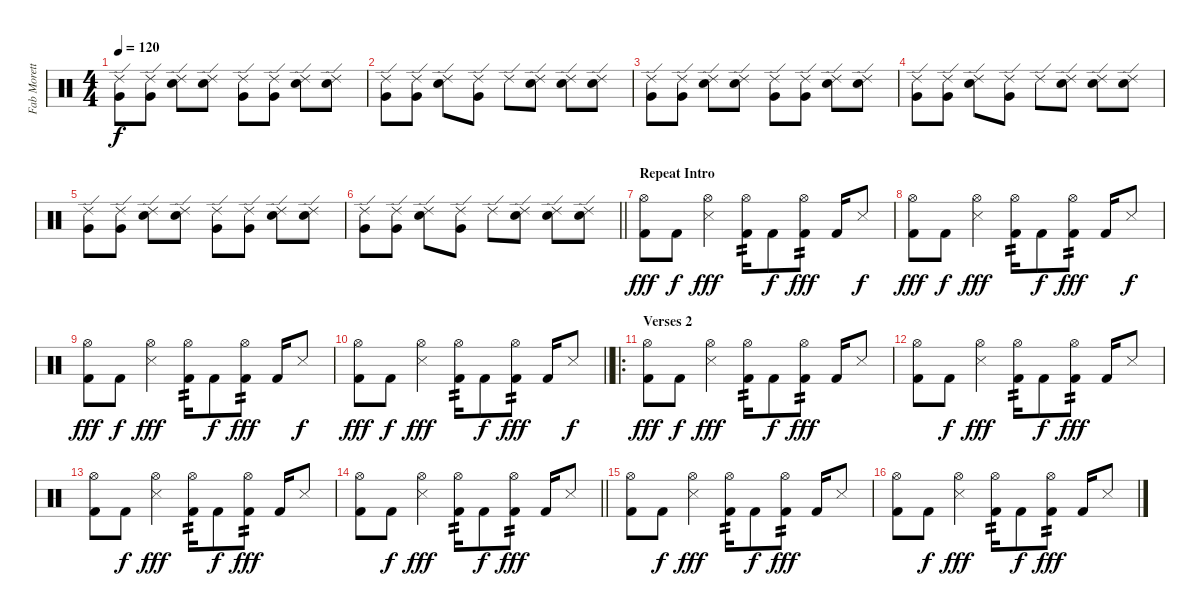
\track ("Fab Moretti - Drums" "Fab Morett") {instrument percussion}
\staff {score}
\articulation defaults
\ts (4 4)
\tempo 120
\clef neutral
\ks c
("Ride (edge) 2" "Very Low Tom (hit)").8{dy f} ("Ride (edge) 2" "Very Low Tom (hit)").8 ("Ride (edge) 2" "Electric Snare (hit)").8 ("Ride (edge) 2" "Electric Snare (hit)").8 ("Ride (edge) 2" "Very Low Tom (hit)").8 ("Ride (edge) 2" "Very Low Tom (hit)").8 ("Ride (edge) 2" "Electric Snare (hit)").8 ("Ride (edge) 2" "Electric Snare (hit)").8 |
("Ride (edge) 2" "Very Low Tom (hit)").8 ("Ride (edge) 2" "Very Low Tom (hit)").8 ("Ride (edge) 2" "Electric Snare (hit)").8 ("Ride (edge) 2" "Very Low Tom (hit)").8 "Ride (edge) 2".8 ("Ride (edge) 2" "Electric Snare (hit)").8 ("Ride (edge) 2" "Electric Snare (hit)").8 ("Ride (edge) 2" "Electric Snare (hit)").8 |
("Ride (edge) 2" "Very Low Tom (hit)").8 ("Ride (edge) 2" "Very Low Tom (hit)").8 ("Ride (edge) 2" "Electric Snare (hit)").8 ("Ride (edge) 2" "Electric Snare (hit)").8 ("Ride (edge) 2" "Very Low Tom (hit)").8 ("Ride (edge) 2" "Very Low Tom (hit)").8 ("Ride (edge) 2" "Electric Snare (hit)").8 ("Ride (edge) 2" "Electric Snare (hit)").8 |
("Ride (edge) 2" "Very Low Tom (hit)").8 ("Ride (edge) 2" "Very Low Tom (hit)").8 ("Ride (edge) 2" "Electric Snare (hit)").8 ("Ride (edge) 2" "Very Low Tom (hit)").8 "Ride (edge) 2".8 ("Ride (edge) 2" "Electric Snare (hit)").8 ("Ride (edge) 2" "Electric Snare (hit)").8 ("Ride (edge) 2" "Electric Snare (hit)").8 |
("Ride (edge) 2" "Very Low Tom (hit)").8 ("Ride (edge) 2" "Very Low Tom (hit)").8 ("Ride (edge) 2" "Electric Snare (hit)").8 ("Ride (edge) 2" "Electric Snare (hit)").8 ("Ride (edge) 2" "Very Low Tom (hit)").8 ("Ride (edge) 2" "Very Low Tom (hit)").8 ("Ride (edge) 2" "Electric Snare (hit)").8 ("Ride (edge) 2" "Electric Snare (hit)").8 |
\barLineRight lightlight
("Ride (edge) 2" "Very Low Tom (hit)").8 ("Ride (edge) 2" "Very Low Tom (hit)").8 ("Ride (edge) 2" "Electric Snare (hit)").8 ("Ride (edge) 2" "Very Low Tom (hit)").8 "Ride (edge) 2".8 ("Ride (edge) 2" "Electric Snare (hit)").8 ("Ride (edge) 2" "Electric Snare (hit)").8 ("Ride (edge) 2" "Electric Snare (hit)").8 |
\section ("" "Repeat Intro")
("Kick (hit) 2" "Hi-Hat (open)").8{dy fff} "Kick (hit) 2".8{dy f} ("Snare (side stick) 3" "Hi-Hat (open)").4{dy fff} ("Kick (hit) 2" "Hi-Hat (open)").16{tp 2} "Kick (hit) 2".8{dy f} ("Kick (hit) 2" "Hi-Hat (open)").8{tp 2 dy fff} "Kick (hit) 2".16 "Snare (side stick) 3".8{dy f} |
("Kick (hit) 2" "Hi-Hat (open)").8{dy fff} "Kick (hit) 2".8{dy f} ("Snare (side stick) 3" "Hi-Hat (open)").4{dy fff} ("Kick (hit) 2" "Hi-Hat (open)").16{tp 2} "Kick (hit) 2".8{dy f} ("Kick (hit) 2" "Hi-Hat (open)").8{tp 2 dy fff} "Kick (hit) 2".16 "Snare (side stick) 3".8{dy f} |
("Kick (hit) 2" "Hi-Hat (open)").8{dy fff} "Kick (hit) 2".8{dy f} ("Snare (side stick) 3" "Hi-Hat (open)").4{dy fff} ("Kick (hit) 2" "Hi-Hat (open)").16{tp 2} "Kick (hit) 2".8{dy f} ("Kick (hit) 2" "Hi-Hat (open)").8{tp 2 dy fff} "Kick (hit) 2".16 "Snare (side stick) 3".8{dy f} |
\barLineRight lightlight
("Kick (hit) 2" "Hi-Hat (open)").8{dy fff} "Kick (hit) 2".8{dy f} ("Snare (side stick) 3" "Hi-Hat (open)").4{dy fff} ("Kick (hit) 2" "Hi-Hat (open)").16{tp 2} "Kick (hit) 2".8{dy f} ("Kick (hit) 2" "Hi-Hat (open)").8{tp 2 dy fff} "Kick (hit) 2".16 "Snare (side stick) 3".8{dy f} |
\ro
\section ("" "Verses 2")
("Kick (hit) 2" "Hi-Hat (open)").8{dy fff} "Kick (hit) 2".8{dy f} ("Snare (side stick) 3" "Hi-Hat (open)").4{dy fff} ("Kick (hit) 2" "Hi-Hat (open)").16{tp 2} "Kick (hit) 2".8{dy f} ("Kick (hit) 2" "Hi-Hat (open)").8{tp 2 dy fff} "Kick (hit) 2".16 "Snare (side stick) 3".8 |
("Kick (hit) 2" "Hi-Hat (open)").8 "Kick (hit) 2".8{dy f} ("Snare (side stick) 3" "Hi-Hat (open)").4{dy fff} ("Kick (hit) 2" "Hi-Hat (open)").16{tp 2} "Kick (hit) 2".8{dy f} ("Kick (hit) 2" "Hi-Hat (open)").8{tp 2 dy fff} "Kick (hit) 2".16 "Snare (side stick) 3".8 |
("Kick (hit) 2" "Hi-Hat (open)").8 "Kick (hit) 2".8{dy f} ("Snare (side stick) 3" "Hi-Hat (open)").4{dy fff} ("Kick (hit) 2" "Hi-Hat (open)").16{tp 2} "Kick (hit) 2".8{dy f} ("Kick (hit) 2" "Hi-Hat (open)").8{tp 2 dy fff} "Kick (hit) 2".16 "Snare (side stick) 3".8 |
\barLineRight lightlight
("Kick (hit) 2" "Hi-Hat (open)").8 "Kick (hit) 2".8{dy f} ("Snare (side stick) 3" "Hi-Hat (open)").4{dy fff} ("Kick (hit) 2" "Hi-Hat (open)").16{tp 2} "Kick (hit) 2".8{dy f} ("Kick (hit) 2" "Hi-Hat (open)").8{tp 2 dy fff} "Kick (hit) 2".16 "Snare (side stick) 3".8 |
("Kick (hit) 2" "Hi-Hat (open)").8 "Kick (hit) 2".8{dy f} ("Snare (side stick) 3" "Hi-Hat (open)").4{dy fff} ("Kick (hit) 2" "Hi-Hat (open)").16{tp 2} "Kick (hit) 2".8{dy f} ("Kick (hit) 2" "Hi-Hat (open)").8{tp 2 dy fff} "Kick (hit) 2".16 "Snare (side stick) 3".8 |
("Kick (hit) 2" "Hi-Hat (open)").8 "Kick (hit) 2".8{dy f} ("Snare (side stick) 3" "Hi-Hat (open)").4{dy fff} ("Kick (hit) 2" "Hi-Hat (open)").16{tp 2} "Kick (hit) 2".8{dy f} ("Kick (hit) 2" "Hi-Hat (open)").8{tp 2 dy fff} "Kick (hit) 2".16 "Snare (side stick) 3".8
